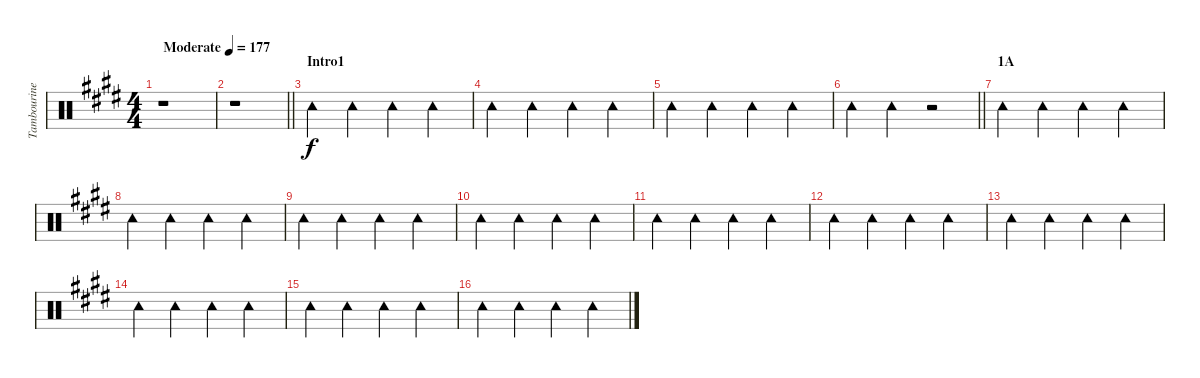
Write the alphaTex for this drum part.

\track ("Tambourine" "Tambourine") {instrument percussion}
\staff {score}
\articulation defaults
\ts (4 4)
\tempo (177 "Moderate")
\clef neutral
\ks e
r.1{dy f} |
\barLineRight lightlight
r.1 |
\section ("" "Intro1")
"Tambourine (hit)".4 "Tambourine (hit)".4 "Tambourine (hit)".4 "Tambourine (hit)".4 |
"Tambourine (hit)".4 "Tambourine (hit)".4 "Tambourine (hit)".4 "Tambourine (hit)".4 |
"Tambourine (hit)".4 "Tambourine (hit)".4 "Tambourine (hit)".4 "Tambourine (hit)".4 |
\barLineRight lightlight "Tambourine (hit)".4 "Tambourine (hit)".4
r.2 |
\section ("" "1A")
"Tambourine (hit)".4 "Tambourine (hit)".4 "Tambourine (hit)".4 "Tambourine (hit)".4 |
"Tambourine (hit)".4 "Tambourine (hit)".4 "Tambourine (hit)".4 "Tambourine (hit)".4 |
"Tambourine (hit)".4 "Tambourine (hit)".4 "Tambourine (hit)".4 "Tambourine (hit)".4 |
"Tambourine (hit)".4 "Tambourine (hit)".4 "Tambourine (hit)".4 "Tambourine (hit)".4 |
"Tambourine (hit)".4 "Tambourine (hit)".4 "Tambourine (hit)".4 "Tambourine (hit)".4 |
"Tambourine (hit)".4 "Tambourine (hit)".4 "Tambourine (hit)".4 "Tambourine (hit)".4 |
"Tambourine (hit)".4 "Tambourine (hit)".4 "Tambourine (hit)".4 "Tambourine (hit)".4 |
"Tambourine (hit)".4 "Tambourine (hit)".4 "Tambourine (hit)".4 "Tambourine (hit)".4 |
"Tambourine (hit)".4 "Tambourine (hit)".4 "Tambourine (hit)".4 "Tambourine (hit)".4 |
"Tambourine (hit)".4 "Tambourine (hit)".4 "Tambourine (hit)".4 "Tambourine (hit)".4
